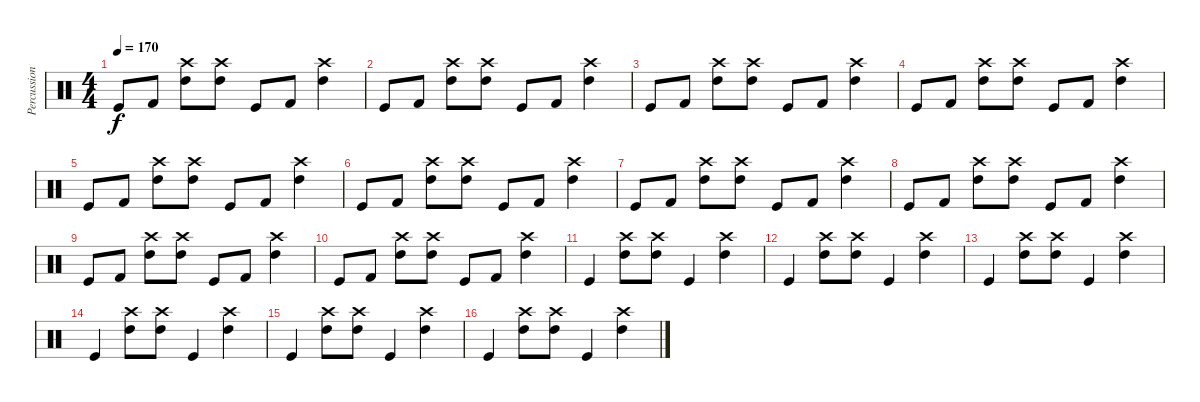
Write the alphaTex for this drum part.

\track ("Percussions" "Percussion") {instrument percussion}
\staff {score}
\articulation defaults
\ts (4 4)
\tempo 170
\clef neutral
\ks c "Kick (hit)".8{dy f} "Kick (hit) 2".8
("Crash high (hit)" "High Tom (hit)").8 ("Crash high (hit)" "High Tom (hit)").8 "Kick (hit)".8 "Kick (hit) 2".8 ("Crash high (hit)" "High Tom (hit)").4 |
"Kick (hit)".8 "Kick (hit) 2".8 ("Crash high (hit)" "High Tom (hit)").8 ("Crash high (hit)" "High Tom (hit)").8 "Kick (hit)".8 "Kick (hit) 2".8 ("Crash high (hit)" "High Tom (hit)").4 |
"Kick (hit)".8 "Kick (hit) 2".8 ("Crash high (hit)" "High Tom (hit)").8 ("Crash high (hit)" "High Tom (hit)").8 "Kick (hit)".8 "Kick (hit) 2".8 ("Crash high (hit)" "High Tom (hit)").4 |
"Kick (hit)".8 "Kick (hit) 2".8 ("Crash high (hit)" "High Tom (hit)").8 ("Crash high (hit)" "High Tom (hit)").8 "Kick (hit)".8 "Kick (hit) 2".8 ("Crash high (hit)" "High Tom (hit)").4 |
"Kick (hit)".8 "Kick (hit) 2".8 ("Crash high (hit)" "High Tom (hit)").8 ("Crash high (hit)" "High Tom (hit)").8 "Kick (hit)".8 "Kick (hit) 2".8 ("Crash high (hit)" "High Tom (hit)").4 |
"Kick (hit)".8 "Kick (hit) 2".8 ("Crash high (hit)" "High Tom (hit)").8 ("Crash high (hit)" "High Tom (hit)").8 "Kick (hit)".8 "Kick (hit) 2".8 ("Crash high (hit)" "High Tom (hit)").4 |
"Kick (hit)".8 "Kick (hit) 2".8 ("Crash high (hit)" "High Tom (hit)").8 ("Crash high (hit)" "High Tom (hit)").8 "Kick (hit)".8 "Kick (hit) 2".8 ("Crash high (hit)" "High Tom (hit)").4 |
"Kick (hit)".8 "Kick (hit) 2".8 ("Crash high (hit)" "High Tom (hit)").8 ("Crash high (hit)" "High Tom (hit)").8 "Kick (hit)".8 "Kick (hit) 2".8 ("Crash high (hit)" "High Tom (hit)").4 |
"Kick (hit)".8 "Kick (hit) 2".8 ("Crash high (hit)" "High Tom (hit)").8 ("Crash high (hit)" "High Tom (hit)").8 "Kick (hit)".8 "Kick (hit) 2".8 ("Crash high (hit)" "High Tom (hit)").4 |
"Kick (hit)".8 "Kick (hit) 2".8 ("Crash high (hit)" "High Tom (hit)").8 ("Crash high (hit)" "High Tom (hit)").8 "Kick (hit)".8 "Kick (hit) 2".8 ("Crash high (hit)" "High Tom (hit)").4 |
"Kick (hit)".4 ("Crash high (hit)" "High Tom (hit)").8 ("Crash high (hit)" "High Tom (hit)").8 "Kick (hit)".4 ("Crash high (hit)" "High Tom (hit)").4 |
"Kick (hit)".4 ("Crash high (hit)" "High Tom (hit)").8 ("Crash high (hit)" "High Tom (hit)").8 "Kick (hit)".4 ("Crash high (hit)" "High Tom (hit)").4 |
"Kick (hit)".4 ("Crash high (hit)" "High Tom (hit)").8 ("Crash high (hit)" "High Tom (hit)").8 "Kick (hit)".4 ("Crash high (hit)" "High Tom (hit)").4 |
"Kick (hit)".4 ("Crash high (hit)" "High Tom (hit)").8 ("Crash high (hit)" "High Tom (hit)").8 "Kick (hit)".4 ("Crash high (hit)" "High Tom (hit)").4 |
"Kick (hit)".4 ("Crash high (hit)" "High Tom (hit)").8 ("Crash high (hit)" "High Tom (hit)").8 "Kick (hit)".4 ("Crash high (hit)" "High Tom (hit)").4 |
"Kick (hit)".4 ("Crash high (hit)" "High Tom (hit)").8 ("Crash high (hit)" "High Tom (hit)").8 "Kick (hit)".4 ("Crash high (hit)" "High Tom (hit)").4
